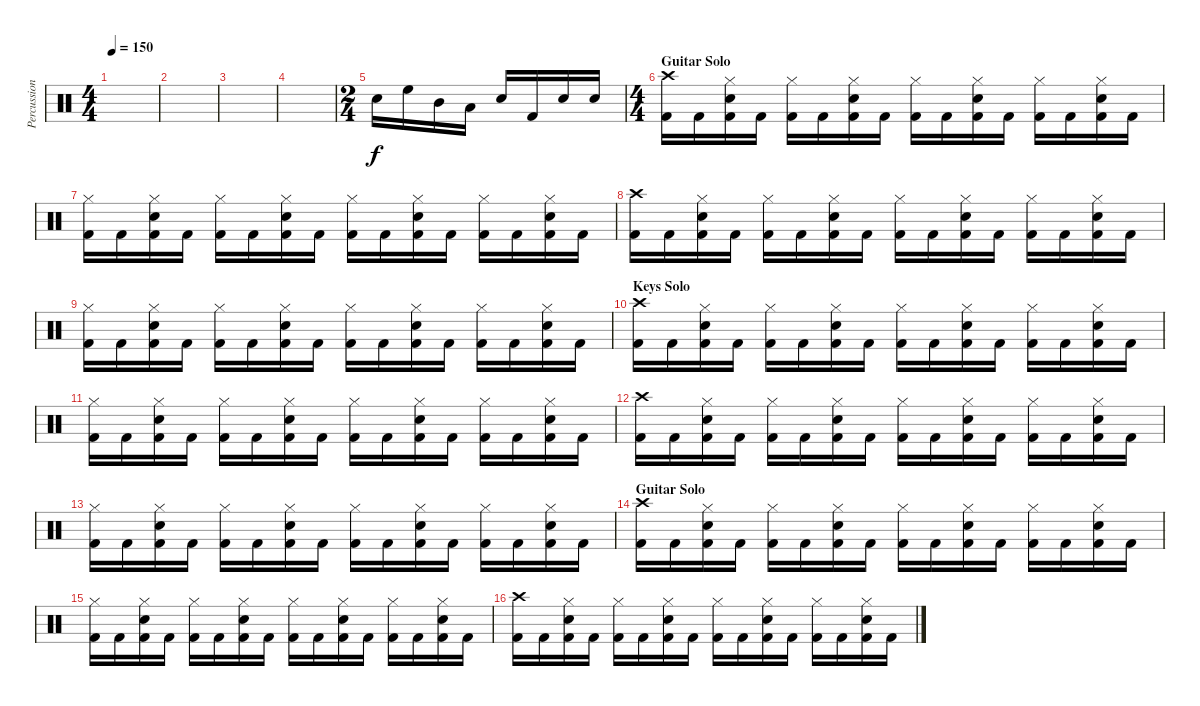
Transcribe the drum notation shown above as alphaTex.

\track ("Percussion" "Percussion") {instrument percussion}
\staff {score}
\articulation defaults
\ts (4 4)
\tempo 150
\clef neutral
\ks c
|
|
|
|
\ts (2 4)
"Snare (hit) 2".16 "High Floor Tom (hit)".16 "Mid Tom (hit)".16 "Low Tom (hit)".16 "Snare (hit) 2".16 "Kick (hit) 2".16 "Snare (hit) 2".16 "Snare (hit) 2".16 |
\ts (4 4)
\section ("" "Guitar Solo")
("Crash high (hit)" "Kick (hit) 2").16 "Kick (hit) 2".16 ("Hi-Hat (closed)" "Snare (hit) 2" "Kick (hit) 2").16 "Kick (hit) 2".16 ("Hi-Hat (closed)" "Kick (hit) 2").16 "Kick (hit) 2".16 ("Hi-Hat (closed)" "Snare (hit) 2" "Kick (hit) 2").16 "Kick (hit) 2".16 ("Hi-Hat (closed)" "Kick (hit) 2").16 "Kick (hit) 2".16 ("Hi-Hat (closed)" "Snare (hit) 2" "Kick (hit) 2").16 "Kick (hit) 2".16 ("Hi-Hat (closed)" "Kick (hit) 2").16 "Kick (hit) 2".16 ("Hi-Hat (closed)" "Snare (hit) 2" "Kick (hit) 2").16 "Kick (hit) 2".16 |
("Hi-Hat (closed)" "Kick (hit) 2").16 "Kick (hit) 2".16 ("Hi-Hat (closed)" "Snare (hit) 2" "Kick (hit) 2").16 "Kick (hit) 2".16 ("Hi-Hat (closed)" "Kick (hit) 2").16 "Kick (hit) 2".16 ("Hi-Hat (closed)" "Snare (hit) 2" "Kick (hit) 2").16 "Kick (hit) 2".16 ("Hi-Hat (closed)" "Kick (hit) 2").16 "Kick (hit) 2".16 ("Hi-Hat (closed)" "Snare (hit) 2" "Kick (hit) 2").16 "Kick (hit) 2".16 ("Hi-Hat (closed)" "Kick (hit) 2").16 "Kick (hit) 2".16 ("Hi-Hat (closed)" "Snare (hit) 2" "Kick (hit) 2").16 "Kick (hit) 2".16 |
("Crash high (hit)" "Kick (hit) 2").16 "Kick (hit) 2".16 ("Hi-Hat (closed)" "Snare (hit) 2" "Kick (hit) 2").16 "Kick (hit) 2".16 ("Hi-Hat (closed)" "Kick (hit) 2").16 "Kick (hit) 2".16 ("Hi-Hat (closed)" "Snare (hit) 2" "Kick (hit) 2").16 "Kick (hit) 2".16 ("Hi-Hat (closed)" "Kick (hit) 2").16 "Kick (hit) 2".16 ("Hi-Hat (closed)" "Snare (hit) 2" "Kick (hit) 2").16 "Kick (hit) 2".16 ("Hi-Hat (closed)" "Kick (hit) 2").16 "Kick (hit) 2".16 ("Hi-Hat (closed)" "Snare (hit) 2" "Kick (hit) 2").16 "Kick (hit) 2".16 |
("Hi-Hat (closed)" "Kick (hit) 2").16 "Kick (hit) 2".16 ("Hi-Hat (closed)" "Snare (hit) 2" "Kick (hit) 2").16 "Kick (hit) 2".16 ("Hi-Hat (closed)" "Kick (hit) 2").16 "Kick (hit) 2".16 ("Hi-Hat (closed)" "Snare (hit) 2" "Kick (hit) 2").16 "Kick (hit) 2".16 ("Hi-Hat (closed)" "Kick (hit) 2").16 "Kick (hit) 2".16 ("Hi-Hat (closed)" "Snare (hit) 2" "Kick (hit) 2").16 "Kick (hit) 2".16 ("Hi-Hat (closed)" "Kick (hit) 2").16 "Kick (hit) 2".16 ("Hi-Hat (closed)" "Snare (hit) 2" "Kick (hit) 2").16 "Kick (hit) 2".16 |
\section ("" "Keys Solo")
("Crash high (hit)" "Kick (hit) 2").16 "Kick (hit) 2".16 ("Hi-Hat (closed)" "Snare (hit) 2" "Kick (hit) 2").16 "Kick (hit) 2".16 ("Hi-Hat (closed)" "Kick (hit) 2").16 "Kick (hit) 2".16 ("Hi-Hat (closed)" "Snare (hit) 2" "Kick (hit) 2").16 "Kick (hit) 2".16 ("Hi-Hat (closed)" "Kick (hit) 2").16 "Kick (hit) 2".16 ("Hi-Hat (closed)" "Snare (hit) 2" "Kick (hit) 2").16 "Kick (hit) 2".16 ("Hi-Hat (closed)" "Kick (hit) 2").16 "Kick (hit) 2".16 ("Hi-Hat (closed)" "Snare (hit) 2" "Kick (hit) 2").16 "Kick (hit) 2".16 |
("Hi-Hat (closed)" "Kick (hit) 2").16 "Kick (hit) 2".16 ("Hi-Hat (closed)" "Snare (hit) 2" "Kick (hit) 2").16 "Kick (hit) 2".16 ("Hi-Hat (closed)" "Kick (hit) 2").16 "Kick (hit) 2".16 ("Hi-Hat (closed)" "Snare (hit) 2" "Kick (hit) 2").16 "Kick (hit) 2".16 ("Hi-Hat (closed)" "Kick (hit) 2").16 "Kick (hit) 2".16 ("Hi-Hat (closed)" "Snare (hit) 2" "Kick (hit) 2").16 "Kick (hit) 2".16 ("Hi-Hat (closed)" "Kick (hit) 2").16 "Kick (hit) 2".16 ("Hi-Hat (closed)" "Snare (hit) 2" "Kick (hit) 2").16 "Kick (hit) 2".16 |
("Crash high (hit)" "Kick (hit) 2").16 "Kick (hit) 2".16 ("Hi-Hat (closed)" "Snare (hit) 2" "Kick (hit) 2").16 "Kick (hit) 2".16 ("Hi-Hat (closed)" "Kick (hit) 2").16 "Kick (hit) 2".16 ("Hi-Hat (closed)" "Snare (hit) 2" "Kick (hit) 2").16 "Kick (hit) 2".16 ("Hi-Hat (closed)" "Kick (hit) 2").16 "Kick (hit) 2".16 ("Hi-Hat (closed)" "Snare (hit) 2" "Kick (hit) 2").16 "Kick (hit) 2".16 ("Hi-Hat (closed)" "Kick (hit) 2").16 "Kick (hit) 2".16 ("Hi-Hat (closed)" "Snare (hit) 2" "Kick (hit) 2").16 "Kick (hit) 2".16 |
("Hi-Hat (closed)" "Kick (hit) 2").16 "Kick (hit) 2".16 ("Hi-Hat (closed)" "Snare (hit) 2" "Kick (hit) 2").16 "Kick (hit) 2".16 ("Hi-Hat (closed)" "Kick (hit) 2").16 "Kick (hit) 2".16 ("Hi-Hat (closed)" "Snare (hit) 2" "Kick (hit) 2").16 "Kick (hit) 2".16 ("Hi-Hat (closed)" "Kick (hit) 2").16 "Kick (hit) 2".16 ("Hi-Hat (closed)" "Snare (hit) 2" "Kick (hit) 2").16 "Kick (hit) 2".16 ("Hi-Hat (closed)" "Kick (hit) 2").16 "Kick (hit) 2".16 ("Hi-Hat (closed)" "Snare (hit) 2" "Kick (hit) 2").16 "Kick (hit) 2".16 |
\section ("" "Guitar Solo")
("Crash high (hit)" "Kick (hit) 2").16 "Kick (hit) 2".16 ("Hi-Hat (closed)" "Snare (hit) 2" "Kick (hit) 2").16 "Kick (hit) 2".16 ("Hi-Hat (closed)" "Kick (hit) 2").16 "Kick (hit) 2".16 ("Hi-Hat (closed)" "Snare (hit) 2" "Kick (hit) 2").16 "Kick (hit) 2".16 ("Hi-Hat (closed)" "Kick (hit) 2").16 "Kick (hit) 2".16 ("Hi-Hat (closed)" "Snare (hit) 2" "Kick (hit) 2").16 "Kick (hit) 2".16 ("Hi-Hat (closed)" "Kick (hit) 2").16 "Kick (hit) 2".16 ("Hi-Hat (closed)" "Snare (hit) 2" "Kick (hit) 2").16 "Kick (hit) 2".16 |
("Hi-Hat (closed)" "Kick (hit) 2").16 "Kick (hit) 2".16 ("Hi-Hat (closed)" "Snare (hit) 2" "Kick (hit) 2").16 "Kick (hit) 2".16 ("Hi-Hat (closed)" "Kick (hit) 2").16 "Kick (hit) 2".16 ("Hi-Hat (closed)" "Snare (hit) 2" "Kick (hit) 2").16 "Kick (hit) 2".16 ("Hi-Hat (closed)" "Kick (hit) 2").16 "Kick (hit) 2".16 ("Hi-Hat (closed)" "Snare (hit) 2" "Kick (hit) 2").16 "Kick (hit) 2".16 ("Hi-Hat (closed)" "Kick (hit) 2").16 "Kick (hit) 2".16 ("Hi-Hat (closed)" "Snare (hit) 2" "Kick (hit) 2").16 "Kick (hit) 2".16 |
("Crash high (hit)" "Kick (hit) 2").16 "Kick (hit) 2".16 ("Hi-Hat (closed)" "Snare (hit) 2" "Kick (hit) 2").16 "Kick (hit) 2".16 ("Hi-Hat (closed)" "Kick (hit) 2").16 "Kick (hit) 2".16 ("Hi-Hat (closed)" "Snare (hit) 2" "Kick (hit) 2").16 "Kick (hit) 2".16 ("Hi-Hat (closed)" "Kick (hit) 2").16 "Kick (hit) 2".16 ("Hi-Hat (closed)" "Snare (hit) 2" "Kick (hit) 2").16 "Kick (hit) 2".16 ("Hi-Hat (closed)" "Kick (hit) 2").16 "Kick (hit) 2".16 ("Hi-Hat (closed)" "Snare (hit) 2" "Kick (hit) 2").16 "Kick (hit) 2".16
